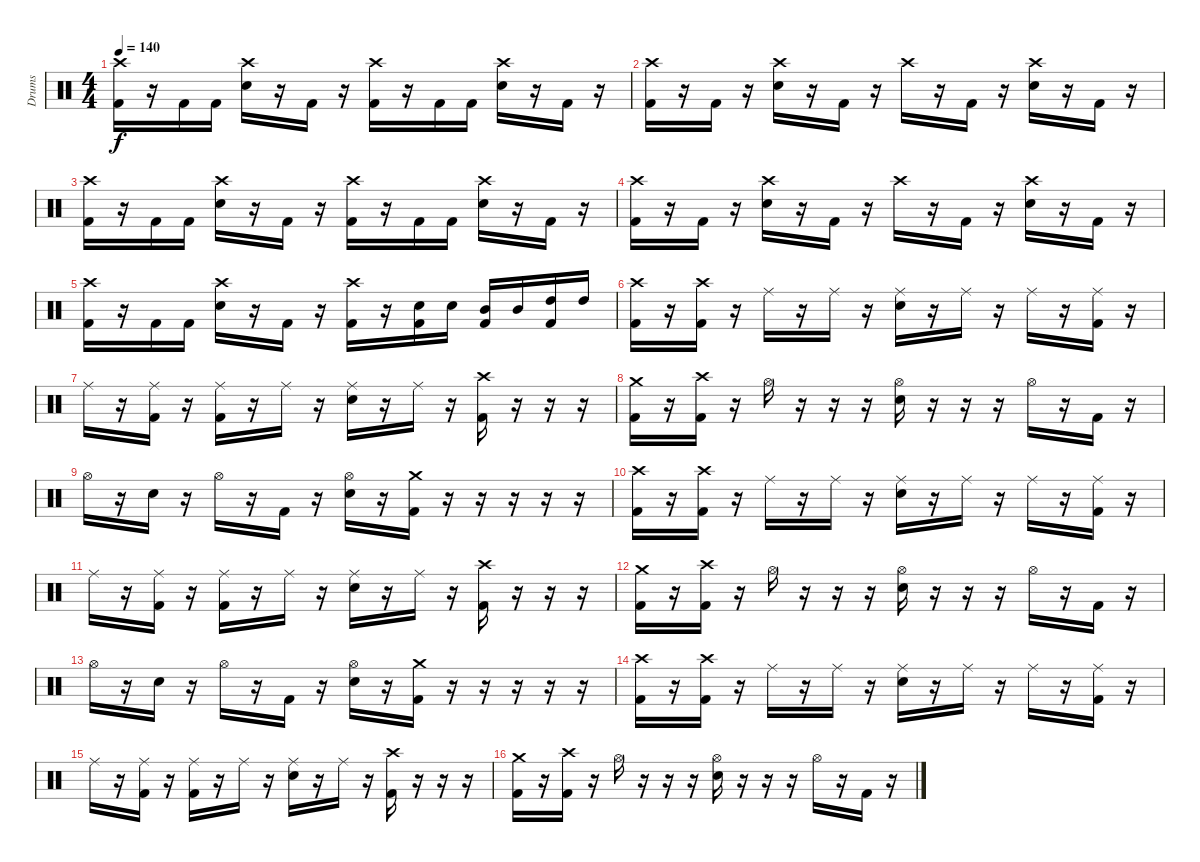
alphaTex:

\track ("Drums" "Drums") {instrument percussion}
\staff {score}
\articulation defaults
\ts (4 4)
\tempo 140
\clef neutral
\ks c
("Crash high (hit)" "Kick (hit) 2").16{dy f} r.16 "Kick (hit) 2".16 "Kick (hit) 2".16 ("Crash high (hit)" "Electric Snare (hit)").16 r.16 "Kick (hit) 2".16 r.16 ("Crash high (hit)" "Kick (hit) 2").16 r.16 "Kick (hit) 2".16 "Kick (hit) 2".16 ("Crash high (hit)" "Electric Snare (hit)").16 r.16 "Kick (hit) 2".16 r.16 |
("Crash high (hit)" "Kick (hit) 2").16 r.16 "Kick (hit) 2".16 r.16 ("Crash high (hit)" "Electric Snare (hit)").16 r.16 "Kick (hit) 2".16 r.16 "Crash high (hit)".16 r.16 "Kick (hit) 2".16 r.16 ("Crash high (hit)" "Electric Snare (hit)").16 r.16 "Kick (hit) 2".16 r.16 |
("Crash high (hit)" "Kick (hit) 2").16 r.16 "Kick (hit) 2".16 "Kick (hit) 2".16 ("Crash high (hit)" "Electric Snare (hit)").16 r.16 "Kick (hit) 2".16 r.16 ("Crash high (hit)" "Kick (hit) 2").16 r.16 "Kick (hit) 2".16 "Kick (hit) 2".16 ("Crash high (hit)" "Electric Snare (hit)").16 r.16 "Kick (hit) 2".16 r.16 |
("Crash high (hit)" "Kick (hit) 2").16 r.16 "Kick (hit) 2".16 r.16 ("Crash high (hit)" "Electric Snare (hit)").16 r.16 "Kick (hit) 2".16 r.16 "Crash high (hit)".16 r.16 "Kick (hit) 2".16 r.16 ("Crash high (hit)" "Electric Snare (hit)").16 r.16 "Kick (hit) 2".16 r.16 |
("Crash high (hit)" "Kick (hit) 2").16 r.16 "Kick (hit) 2".16 "Kick (hit) 2".16 ("Crash high (hit)" "Electric Snare (hit)").16 r.16 "Kick (hit) 2".16 r.16 ("Crash high (hit)" "Kick (hit) 2").16 r.16 ("Electric Snare (hit)" "Kick (hit) 2").16 "Electric Snare (hit)".16 ("Mid Tom (hit)" "Kick (hit) 2").16 "Mid Tom (hit)".16 ("High Tom (hit)" "Kick (hit) 2").16 "High Tom (hit)".16 |
("Crash high (hit)" "Kick (hit) 2").16 r.16 ("Crash high (hit)" "Kick (hit) 2").16 r.16 "Ride (middle)".16 r.16 "Ride (middle)".16 r.16 ("Ride (middle)" "Electric Snare (hit)").16 r.16 "Ride (middle)".16 r.16 "Ride (middle)".16 r.16 ("Ride (middle)" "Kick (hit) 2").16 r.16 |
"Ride (middle)".16 r.16 ("Ride (middle)" "Kick (hit) 2").16 r.16 ("Ride (middle)" "Kick (hit) 2").16 r.16 "Ride (middle)".16 r.16 ("Ride (middle)" "Electric Snare (hit)").16 r.16 "Ride (middle)".16 r.16 ("Crash high (hit)" "Kick (hit) 2").16 r.16 r.16 r.16 |
("Crash medium (hit)" "Kick (hit) 2").16 r.16 ("Crash high (hit)" "Kick (hit) 2").16 r.16 "Hi-Hat (open)".16 r.16 r.16 r.16 ("Hi-Hat (open)" "Electric Snare (hit)").16 r.16 r.16 r.16 "Hi-Hat (open)".16 r.16 "Kick (hit) 2".16 r.16 |
"Hi-Hat (open)".16 r.16 "Electric Snare (hit)".16 r.16 "Hi-Hat (open)".16 r.16 "Kick (hit) 2".16 r.16 ("Hi-Hat (open)" "Electric Snare (hit)").16 r.16 ("Crash medium (hit)" "Kick (hit) 2").16 r.16 r.16 r.16 r.16 r.16 |
("Crash high (hit)" "Kick (hit) 2").16 r.16 ("Crash high (hit)" "Kick (hit) 2").16 r.16 "Ride (middle)".16 r.16 "Ride (middle)".16 r.16 ("Ride (middle)" "Electric Snare (hit)").16 r.16 "Ride (middle)".16 r.16 "Ride (middle)".16 r.16 ("Ride (middle)" "Kick (hit) 2").16 r.16 |
"Ride (middle)".16 r.16 ("Ride (middle)" "Kick (hit) 2").16 r.16 ("Ride (middle)" "Kick (hit) 2").16 r.16 "Ride (middle)".16 r.16 ("Ride (middle)" "Electric Snare (hit)").16 r.16 "Ride (middle)".16 r.16 ("Crash high (hit)" "Kick (hit) 2").16 r.16 r.16 r.16 |
("Crash medium (hit)" "Kick (hit) 2").16 r.16 ("Crash high (hit)" "Kick (hit) 2").16 r.16 "Hi-Hat (open)".16 r.16 r.16 r.16 ("Hi-Hat (open)" "Electric Snare (hit)").16 r.16 r.16 r.16 "Hi-Hat (open)".16 r.16 "Kick (hit) 2".16 r.16 |
"Hi-Hat (open)".16 r.16 "Electric Snare (hit)".16 r.16 "Hi-Hat (open)".16 r.16 "Kick (hit) 2".16 r.16 ("Hi-Hat (open)" "Electric Snare (hit)").16 r.16 ("Crash medium (hit)" "Kick (hit) 2").16 r.16 r.16 r.16 r.16 r.16 |
("Crash high (hit)" "Kick (hit) 2").16 r.16 ("Crash high (hit)" "Kick (hit) 2").16 r.16 "Ride (middle)".16 r.16 "Ride (middle)".16 r.16 ("Ride (middle)" "Electric Snare (hit)").16 r.16 "Ride (middle)".16 r.16 "Ride (middle)".16 r.16 ("Ride (middle)" "Kick (hit) 2").16 r.16 |
"Ride (middle)".16 r.16 ("Ride (middle)" "Kick (hit) 2").16 r.16 ("Ride (middle)" "Kick (hit) 2").16 r.16 "Ride (middle)".16 r.16 ("Ride (middle)" "Electric Snare (hit)").16 r.16 "Ride (middle)".16 r.16 ("Crash high (hit)" "Kick (hit) 2").16 r.16 r.16 r.16 |
("Crash medium (hit)" "Kick (hit) 2").16 r.16 ("Crash high (hit)" "Kick (hit) 2").16 r.16 "Hi-Hat (open)".16 r.16 r.16 r.16 ("Hi-Hat (open)" "Electric Snare (hit)").16 r.16 r.16 r.16 "Hi-Hat (open)".16 r.16 "Kick (hit) 2".16 r.16
